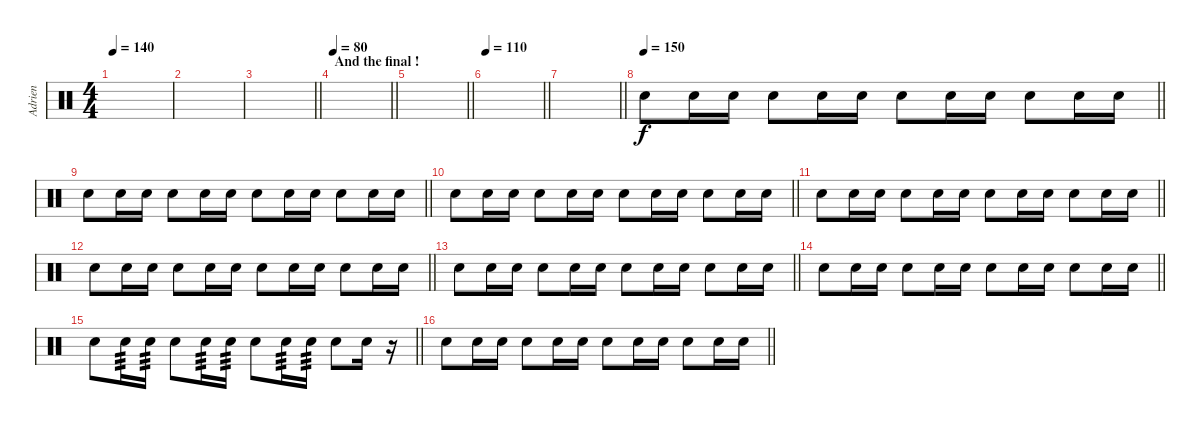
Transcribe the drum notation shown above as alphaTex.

\track ("Adrien" "Adrien") {instrument percussion}
\staff {score}
\articulation defaults
\ts (4 4)
\tempo 140
\clef neutral
\ks c
|
|
\barLineRight lightlight
|
\section ("" "And the final !")
\tempo 80
\barLineRight lightlight
|
\barLineRight lightlight
|
\tempo 110
\barLineRight lightlight
|
\barLineRight lightlight
|
\tempo 150
\barLineRight lightlight "Snare (hit) 2".8{dy f volume 10} "Electric Snare (hit)".16 "Electric Snare (hit)".16 "Snare (hit) 2".8 "Electric Snare (hit)".16 "Electric Snare (hit)".16 "Snare (hit) 2".8 "Electric Snare (hit)".16 "Electric Snare (hit)".16 "Snare (hit) 2".8 "Electric Snare (hit)".16 "Electric Snare (hit)".16
|
\barLineRight lightlight "Snare (hit) 2".8 "Electric Snare (hit)".16 "Electric Snare (hit)".16 "Snare (hit) 2".8 "Electric Snare (hit)".16 "Electric Snare (hit)".16 "Snare (hit) 2".8 "Electric Snare (hit)".16 "Electric Snare (hit)".16 "Snare (hit) 2".8 "Electric Snare (hit)".16 "Electric Snare (hit)".16
|
\barLineRight lightlight "Snare (hit) 2".8 "Electric Snare (hit)".16 "Electric Snare (hit)".16 "Snare (hit) 2".8 "Electric Snare (hit)".16 "Electric Snare (hit)".16 "Snare (hit) 2".8 "Electric Snare (hit)".16 "Electric Snare (hit)".16 "Snare (hit) 2".8 "Electric Snare (hit)".16 "Electric Snare (hit)".16
|
\barLineRight lightlight "Snare (hit) 2".8 "Electric Snare (hit)".16 "Electric Snare (hit)".16 "Snare (hit) 2".8 "Electric Snare (hit)".16 "Electric Snare (hit)".16 "Snare (hit) 2".8 "Electric Snare (hit)".16 "Electric Snare (hit)".16 "Snare (hit) 2".8 "Electric Snare (hit)".16 "Electric Snare (hit)".16
|
\barLineRight lightlight "Snare (hit) 2".8 "Electric Snare (hit)".16 "Electric Snare (hit)".16 "Snare (hit) 2".8 "Electric Snare (hit)".16 "Electric Snare (hit)".16 "Snare (hit) 2".8 "Electric Snare (hit)".16 "Electric Snare (hit)".16 "Snare (hit) 2".8 "Electric Snare (hit)".16 "Electric Snare (hit)".16
|
\barLineRight lightlight "Snare (hit) 2".8 "Electric Snare (hit)".16 "Electric Snare (hit)".16 "Snare (hit) 2".8 "Electric Snare (hit)".16 "Electric Snare (hit)".16 "Snare (hit) 2".8 "Electric Snare (hit)".16 "Electric Snare (hit)".16 "Snare (hit) 2".8 "Electric Snare (hit)".16 "Electric Snare (hit)".16
|
\barLineRight lightlight "Snare (hit) 2".8 "Electric Snare (hit)".16 "Electric Snare (hit)".16 "Snare (hit) 2".8 "Electric Snare (hit)".16 "Electric Snare (hit)".16 "Snare (hit) 2".8 "Electric Snare (hit)".16 "Electric Snare (hit)".16 "Snare (hit) 2".8 "Electric Snare (hit)".16 "Electric Snare (hit)".16
|
\barLineRight lightlight "Snare (hit) 2".8 "Electric Snare (hit)".16{tp 3} "Electric Snare (hit)".16{tp 3} "Snare (hit) 2".8 "Electric Snare (hit)".16{tp 3} "Electric Snare (hit)".16{tp 3} "Snare (hit) 2".8 "Electric Snare (hit)".16{tp 3} "Electric Snare (hit)".16{tp 3} "Snare (hit) 2".8 "Electric Snare (hit)".16
r.16 |
\barLineRight lightlight "Snare (hit) 2".8 "Electric Snare (hit)".16 "Electric Snare (hit)".16 "Snare (hit) 2".8 "Electric Snare (hit)".16 "Electric Snare (hit)".16 "Snare (hit) 2".8 "Electric Snare (hit)".16 "Electric Snare (hit)".16 "Snare (hit) 2".8 "Electric Snare (hit)".16 "Electric Snare (hit)".16
